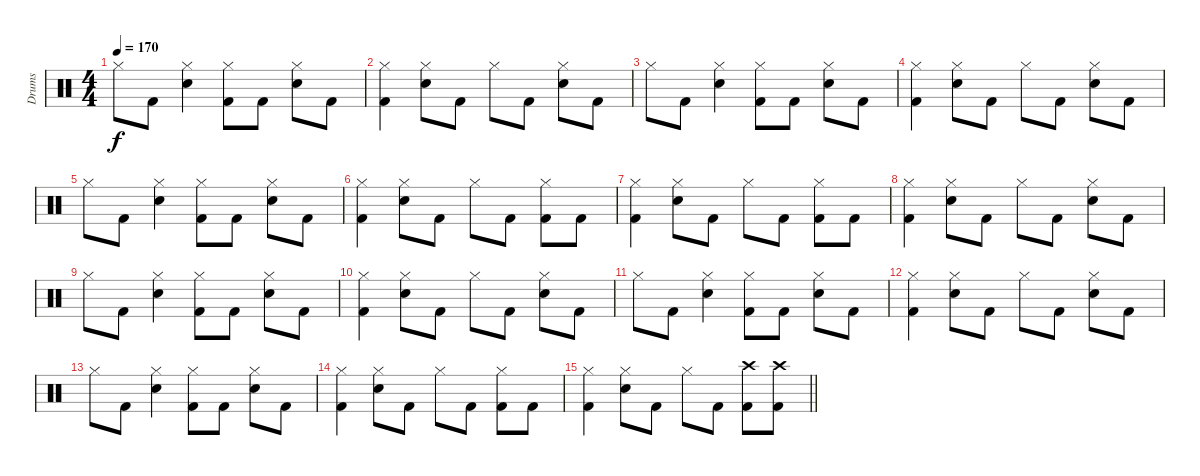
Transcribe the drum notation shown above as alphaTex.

\track ("Drums" "Drums") {instrument percussion}
\staff {score}
\articulation defaults
\ts (4 4)
\tempo 170
\clef neutral
\ks c "Hi-Hat (closed)".8{dy f} "Kick (hit) 2".8
("Hi-Hat (closed)" "Snare (hit) 2").4 ("Hi-Hat (closed)" "Kick (hit) 2").8 "Kick (hit) 2".8 ("Hi-Hat (closed)" "Snare (hit) 2").8 "Kick (hit) 2".8 |
("Hi-Hat (closed)" "Kick (hit) 2").4 ("Hi-Hat (closed)" "Snare (hit) 2").8 "Kick (hit) 2".8 "Hi-Hat (closed)".8 "Kick (hit) 2".8 ("Hi-Hat (closed)" "Snare (hit) 2").8 "Kick (hit) 2".8 |
"Hi-Hat (closed)".8 "Kick (hit) 2".8 ("Hi-Hat (closed)" "Snare (hit) 2").4 ("Hi-Hat (closed)" "Kick (hit) 2").8 "Kick (hit) 2".8 ("Hi-Hat (closed)" "Snare (hit) 2").8 "Kick (hit) 2".8 |
("Hi-Hat (closed)" "Kick (hit) 2").4 ("Hi-Hat (closed)" "Snare (hit) 2").8 "Kick (hit) 2".8 "Hi-Hat (closed)".8 "Kick (hit) 2".8 ("Hi-Hat (closed)" "Snare (hit) 2").8 "Kick (hit) 2".8 |
"Hi-Hat (closed)".8 "Kick (hit) 2".8 ("Hi-Hat (closed)" "Snare (hit) 2").4 ("Hi-Hat (closed)" "Kick (hit) 2").8 "Kick (hit) 2".8 ("Hi-Hat (closed)" "Snare (hit) 2").8 "Kick (hit) 2".8 |
("Hi-Hat (closed)" "Kick (hit) 2").4 ("Hi-Hat (closed)" "Snare (hit) 2").8 "Kick (hit) 2".8 "Hi-Hat (closed)".8 "Kick (hit) 2".8 ("Hi-Hat (closed)" "Kick (hit) 2").8 "Kick (hit) 2".8 |
("Hi-Hat (closed)" "Kick (hit) 2").4 ("Hi-Hat (closed)" "Snare (hit) 2").8 "Kick (hit) 2".8 "Hi-Hat (closed)".8 "Kick (hit) 2".8 ("Hi-Hat (closed)" "Kick (hit) 2").8 "Kick (hit) 2".8 |
("Hi-Hat (closed)" "Kick (hit) 2").4 ("Hi-Hat (closed)" "Snare (hit) 2").8 "Kick (hit) 2".8 "Hi-Hat (closed)".8 "Kick (hit) 2".8 ("Hi-Hat (closed)" "Snare (hit) 2").8 "Kick (hit) 2".8 |
"Hi-Hat (closed)".8 "Kick (hit) 2".8 ("Hi-Hat (closed)" "Snare (hit) 2").4 ("Hi-Hat (closed)" "Kick (hit) 2").8 "Kick (hit) 2".8 ("Hi-Hat (closed)" "Snare (hit) 2").8 "Kick (hit) 2".8 |
("Hi-Hat (closed)" "Kick (hit) 2").4 ("Hi-Hat (closed)" "Snare (hit) 2").8 "Kick (hit) 2".8 "Hi-Hat (closed)".8 "Kick (hit) 2".8 ("Hi-Hat (closed)" "Snare (hit) 2").8 "Kick (hit) 2".8 |
"Hi-Hat (closed)".8 "Kick (hit) 2".8 ("Hi-Hat (closed)" "Snare (hit) 2").4 ("Hi-Hat (closed)" "Kick (hit) 2").8 "Kick (hit) 2".8 ("Hi-Hat (closed)" "Snare (hit) 2").8 "Kick (hit) 2".8 |
("Hi-Hat (closed)" "Kick (hit) 2").4 ("Hi-Hat (closed)" "Snare (hit) 2").8 "Kick (hit) 2".8 "Hi-Hat (closed)".8 "Kick (hit) 2".8 ("Hi-Hat (closed)" "Snare (hit) 2").8 "Kick (hit) 2".8 |
"Hi-Hat (closed)".8 "Kick (hit) 2".8 ("Hi-Hat (closed)" "Snare (hit) 2").4 ("Hi-Hat (closed)" "Kick (hit) 2").8 "Kick (hit) 2".8 ("Hi-Hat (closed)" "Snare (hit) 2").8 "Kick (hit) 2".8 |
("Hi-Hat (closed)" "Kick (hit) 2").4 ("Hi-Hat (closed)" "Snare (hit) 2").8 "Kick (hit) 2".8 "Hi-Hat (closed)".8 "Kick (hit) 2".8 ("Hi-Hat (closed)" "Kick (hit) 2").8 "Kick (hit) 2".8 |
\barLineRight lightlight
("Hi-Hat (closed)" "Kick (hit) 2").4 ("Hi-Hat (closed)" "Snare (hit) 2").8 "Kick (hit) 2".8 "Hi-Hat (closed)".8 "Kick (hit) 2".8 ("Crash high (hit)" "Kick (hit) 2").8 ("Crash high (hit)" "Kick (hit) 2").8
